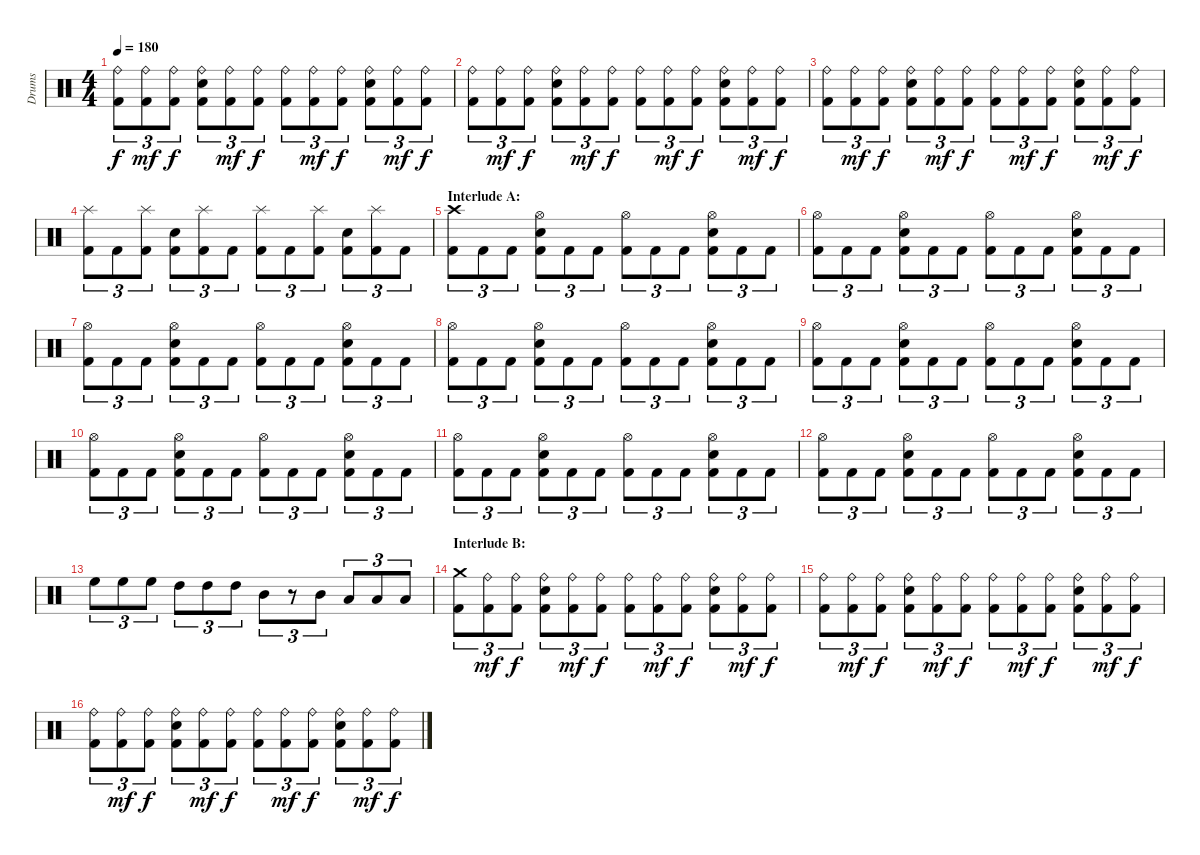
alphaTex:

\track ("Drums" "Drums") {instrument percussion}
\staff {score}
\articulation defaults
\ts (4 4)
\tempo 180
\clef neutral
\ks c
("Ride (bell)" "Kick (hit) 2").8{tu (3 2) dy f} ("Ride (bell)" "Kick (hit) 2").8{tu (3 2) dy mf} ("Ride (bell)" "Kick (hit) 2").8{tu (3 2) dy f} ("Ride (bell)" "Electric Snare (hit)" "Kick (hit) 2").8{tu (3 2)} ("Ride (bell)" "Kick (hit) 2").8{tu (3 2) dy mf} ("Ride (bell)" "Kick (hit) 2").8{tu (3 2) dy f} ("Ride (bell)" "Kick (hit) 2").8{tu (3 2)} ("Ride (bell)" "Kick (hit) 2").8{tu (3 2) dy mf} ("Ride (bell)" "Kick (hit) 2").8{tu (3 2) dy f} ("Ride (bell)" "Electric Snare (hit)" "Kick (hit) 2").8{tu (3 2)} ("Ride (bell)" "Kick (hit) 2").8{tu (3 2) dy mf} ("Ride (bell)" "Kick (hit) 2").8{tu (3 2) dy f} |
("Ride (bell)" "Kick (hit) 2").8{tu (3 2)} ("Ride (bell)" "Kick (hit) 2").8{tu (3 2) dy mf} ("Ride (bell)" "Kick (hit) 2").8{tu (3 2) dy f} ("Ride (bell)" "Electric Snare (hit)" "Kick (hit) 2").8{tu (3 2)} ("Ride (bell)" "Kick (hit) 2").8{tu (3 2) dy mf} ("Ride (bell)" "Kick (hit) 2").8{tu (3 2) dy f} ("Ride (bell)" "Kick (hit) 2").8{tu (3 2)} ("Ride (bell)" "Kick (hit) 2").8{tu (3 2) dy mf} ("Ride (bell)" "Kick (hit) 2").8{tu (3 2) dy f} ("Ride (bell)" "Electric Snare (hit)" "Kick (hit) 2").8{tu (3 2)} ("Ride (bell)" "Kick (hit) 2").8{tu (3 2) dy mf} ("Ride (bell)" "Kick (hit) 2").8{tu (3 2) dy f} |
("Ride (bell)" "Kick (hit) 2").8{tu (3 2)} ("Ride (bell)" "Kick (hit) 2").8{tu (3 2) dy mf} ("Ride (bell)" "Kick (hit) 2").8{tu (3 2) dy f} ("Ride (bell)" "Electric Snare (hit)" "Kick (hit) 2").8{tu (3 2)} ("Ride (bell)" "Kick (hit) 2").8{tu (3 2) dy mf} ("Ride (bell)" "Kick (hit) 2").8{tu (3 2) dy f} ("Ride (bell)" "Kick (hit) 2").8{tu (3 2)} ("Ride (bell)" "Kick (hit) 2").8{tu (3 2) dy mf} ("Ride (bell)" "Kick (hit) 2").8{tu (3 2) dy f} ("Ride (bell)" "Electric Snare (hit)" "Kick (hit) 2").8{tu (3 2)} ("Ride (bell)" "Kick (hit) 2").8{tu (3 2) dy mf} ("Ride (bell)" "Kick (hit) 2").8{tu (3 2) dy f} |
("Splash (hit)" "Kick (hit) 2").8{tu (3 2)} "Kick (hit) 2".8{tu (3 2)} ("Splash (hit)" "Kick (hit) 2").8{tu (3 2)} ("Electric Snare (hit)" "Kick (hit) 2").8{tu (3 2)} ("Splash (hit)" "Kick (hit) 2").8{tu (3 2)} "Kick (hit) 2".8{tu (3 2)} ("Splash (hit)" "Kick (hit) 2").8{tu (3 2)} "Kick (hit) 2".8{tu (3 2)} ("Splash (hit)" "Kick (hit) 2").8{tu (3 2)} ("Electric Snare (hit)" "Kick (hit) 2").8{tu (3 2)} ("Splash (hit)" "Kick (hit) 2").8{tu (3 2)} "Kick (hit) 2".8{tu (3 2)} |
\section ("" "Interlude A:")
("Crash high (hit)" "Kick (hit) 2").8{tu (3 2)} "Kick (hit) 2".8{tu (3 2)} "Kick (hit) 2".8{tu (3 2)} ("Hi-Hat (open)" "Electric Snare (hit)" "Kick (hit) 2").8{tu (3 2)} "Kick (hit) 2".8{tu (3 2)} "Kick (hit) 2".8{tu (3 2)} ("Hi-Hat (open)" "Kick (hit) 2").8{tu (3 2)} "Kick (hit) 2".8{tu (3 2)} "Kick (hit) 2".8{tu (3 2)} ("Hi-Hat (open)" "Electric Snare (hit)" "Kick (hit) 2").8{tu (3 2)} "Kick (hit) 2".8{tu (3 2)} "Kick (hit) 2".8{tu (3 2)} |
("Hi-Hat (open)" "Kick (hit) 2").8{tu (3 2)} "Kick (hit) 2".8{tu (3 2)} "Kick (hit) 2".8{tu (3 2)} ("Hi-Hat (open)" "Electric Snare (hit)" "Kick (hit) 2").8{tu (3 2)} "Kick (hit) 2".8{tu (3 2)} "Kick (hit) 2".8{tu (3 2)} ("Hi-Hat (open)" "Kick (hit) 2").8{tu (3 2)} "Kick (hit) 2".8{tu (3 2)} "Kick (hit) 2".8{tu (3 2)} ("Hi-Hat (open)" "Electric Snare (hit)" "Kick (hit) 2").8{tu (3 2)} "Kick (hit) 2".8{tu (3 2)} "Kick (hit) 2".8{tu (3 2)} |
("Hi-Hat (open)" "Kick (hit) 2").8{tu (3 2)} "Kick (hit) 2".8{tu (3 2)} "Kick (hit) 2".8{tu (3 2)} ("Hi-Hat (open)" "Electric Snare (hit)" "Kick (hit) 2").8{tu (3 2)} "Kick (hit) 2".8{tu (3 2)} "Kick (hit) 2".8{tu (3 2)} ("Hi-Hat (open)" "Kick (hit) 2").8{tu (3 2)} "Kick (hit) 2".8{tu (3 2)} "Kick (hit) 2".8{tu (3 2)} ("Hi-Hat (open)" "Electric Snare (hit)" "Kick (hit) 2").8{tu (3 2)} "Kick (hit) 2".8{tu (3 2)} "Kick (hit) 2".8{tu (3 2)} |
("Hi-Hat (open)" "Kick (hit) 2").8{tu (3 2)} "Kick (hit) 2".8{tu (3 2)} "Kick (hit) 2".8{tu (3 2)} ("Hi-Hat (open)" "Electric Snare (hit)" "Kick (hit) 2").8{tu (3 2)} "Kick (hit) 2".8{tu (3 2)} "Kick (hit) 2".8{tu (3 2)} ("Hi-Hat (open)" "Kick (hit) 2").8{tu (3 2)} "Kick (hit) 2".8{tu (3 2)} "Kick (hit) 2".8{tu (3 2)} ("Hi-Hat (open)" "Electric Snare (hit)" "Kick (hit) 2").8{tu (3 2)} "Kick (hit) 2".8{tu (3 2)} "Kick (hit) 2".8{tu (3 2)} |
("Hi-Hat (open)" "Kick (hit) 2").8{tu (3 2)} "Kick (hit) 2".8{tu (3 2)} "Kick (hit) 2".8{tu (3 2)} ("Hi-Hat (open)" "Electric Snare (hit)" "Kick (hit) 2").8{tu (3 2)} "Kick (hit) 2".8{tu (3 2)} "Kick (hit) 2".8{tu (3 2)} ("Hi-Hat (open)" "Kick (hit) 2").8{tu (3 2)} "Kick (hit) 2".8{tu (3 2)} "Kick (hit) 2".8{tu (3 2)} ("Hi-Hat (open)" "Electric Snare (hit)" "Kick (hit) 2").8{tu (3 2)} "Kick (hit) 2".8{tu (3 2)} "Kick (hit) 2".8{tu (3 2)} |
("Hi-Hat (open)" "Kick (hit) 2").8{tu (3 2)} "Kick (hit) 2".8{tu (3 2)} "Kick (hit) 2".8{tu (3 2)} ("Hi-Hat (open)" "Electric Snare (hit)" "Kick (hit) 2").8{tu (3 2)} "Kick (hit) 2".8{tu (3 2)} "Kick (hit) 2".8{tu (3 2)} ("Hi-Hat (open)" "Kick (hit) 2").8{tu (3 2)} "Kick (hit) 2".8{tu (3 2)} "Kick (hit) 2".8{tu (3 2)} ("Hi-Hat (open)" "Electric Snare (hit)" "Kick (hit) 2").8{tu (3 2)} "Kick (hit) 2".8{tu (3 2)} "Kick (hit) 2".8{tu (3 2)} |
("Hi-Hat (open)" "Kick (hit) 2").8{tu (3 2)} "Kick (hit) 2".8{tu (3 2)} "Kick (hit) 2".8{tu (3 2)} ("Hi-Hat (open)" "Electric Snare (hit)" "Kick (hit) 2").8{tu (3 2)} "Kick (hit) 2".8{tu (3 2)} "Kick (hit) 2".8{tu (3 2)} ("Hi-Hat (open)" "Kick (hit) 2").8{tu (3 2)} "Kick (hit) 2".8{tu (3 2)} "Kick (hit) 2".8{tu (3 2)} ("Hi-Hat (open)" "Electric Snare (hit)" "Kick (hit) 2").8{tu (3 2)} "Kick (hit) 2".8{tu (3 2)} "Kick (hit) 2".8{tu (3 2)} |
("Hi-Hat (open)" "Kick (hit) 2").8{tu (3 2)} "Kick (hit) 2".8{tu (3 2)} "Kick (hit) 2".8{tu (3 2)} ("Hi-Hat (open)" "Electric Snare (hit)" "Kick (hit) 2").8{tu (3 2)} "Kick (hit) 2".8{tu (3 2)} "Kick (hit) 2".8{tu (3 2)} ("Hi-Hat (open)" "Kick (hit) 2").8{tu (3 2)} "Kick (hit) 2".8{tu (3 2)} "Kick (hit) 2".8{tu (3 2)} ("Hi-Hat (open)" "Electric Snare (hit)" "Kick (hit) 2").8{tu (3 2)} "Kick (hit) 2".8{tu (3 2)} "Kick (hit) 2".8{tu (3 2)} |
"High Floor Tom (hit)".8{tu (3 2)} "High Floor Tom (hit)".8{tu (3 2)} "High Floor Tom (hit)".8{tu (3 2)} "High Tom (hit)".8{tu (3 2)} "High Tom (hit)".8{tu (3 2)} "High Tom (hit)".8{tu (3 2)} "Mid Tom (hit)".8{tu (3 2)} r.8{tu (3 2)} "Mid Tom (hit)".8{tu (3 2)} "Low Tom (hit)".8{tu (3 2)} "Low Tom (hit)".8{tu (3 2)} "Low Tom (hit)".8{tu (3 2)} |
\section ("" "Interlude B:")
("Crash medium (hit)" "Kick (hit) 2").8{tu (3 2)} ("Ride (bell)" "Kick (hit) 2").8{tu (3 2) dy mf} ("Ride (bell)" "Kick (hit) 2").8{tu (3 2) dy f} ("Ride (bell)" "Electric Snare (hit)" "Kick (hit) 2").8{tu (3 2)} ("Ride (bell)" "Kick (hit) 2").8{tu (3 2) dy mf} ("Ride (bell)" "Kick (hit) 2").8{tu (3 2) dy f} ("Ride (bell)" "Kick (hit) 2").8{tu (3 2)} ("Ride (bell)" "Kick (hit) 2").8{tu (3 2) dy mf} ("Ride (bell)" "Kick (hit) 2").8{tu (3 2) dy f} ("Ride (bell)" "Electric Snare (hit)" "Kick (hit) 2").8{tu (3 2)} ("Ride (bell)" "Kick (hit) 2").8{tu (3 2) dy mf} ("Ride (bell)" "Kick (hit) 2").8{tu (3 2) dy f} |
("Ride (bell)" "Kick (hit) 2").8{tu (3 2)} ("Ride (bell)" "Kick (hit) 2").8{tu (3 2) dy mf} ("Ride (bell)" "Kick (hit) 2").8{tu (3 2) dy f} ("Ride (bell)" "Electric Snare (hit)" "Kick (hit) 2").8{tu (3 2)} ("Ride (bell)" "Kick (hit) 2").8{tu (3 2) dy mf} ("Ride (bell)" "Kick (hit) 2").8{tu (3 2) dy f} ("Ride (bell)" "Kick (hit) 2").8{tu (3 2)} ("Ride (bell)" "Kick (hit) 2").8{tu (3 2) dy mf} ("Ride (bell)" "Kick (hit) 2").8{tu (3 2) dy f} ("Ride (bell)" "Electric Snare (hit)" "Kick (hit) 2").8{tu (3 2)} ("Ride (bell)" "Kick (hit) 2").8{tu (3 2) dy mf} ("Ride (bell)" "Kick (hit) 2").8{tu (3 2) dy f} |
("Ride (bell)" "Kick (hit) 2").8{tu (3 2)} ("Ride (bell)" "Kick (hit) 2").8{tu (3 2) dy mf} ("Ride (bell)" "Kick (hit) 2").8{tu (3 2) dy f} ("Ride (bell)" "Electric Snare (hit)" "Kick (hit) 2").8{tu (3 2)} ("Ride (bell)" "Kick (hit) 2").8{tu (3 2) dy mf} ("Ride (bell)" "Kick (hit) 2").8{tu (3 2) dy f} ("Ride (bell)" "Kick (hit) 2").8{tu (3 2)} ("Ride (bell)" "Kick (hit) 2").8{tu (3 2) dy mf} ("Ride (bell)" "Kick (hit) 2").8{tu (3 2) dy f} ("Ride (bell)" "Electric Snare (hit)" "Kick (hit) 2").8{tu (3 2)} ("Ride (bell)" "Kick (hit) 2").8{tu (3 2) dy mf} ("Ride (bell)" "Kick (hit) 2").8{tu (3 2) dy f}
